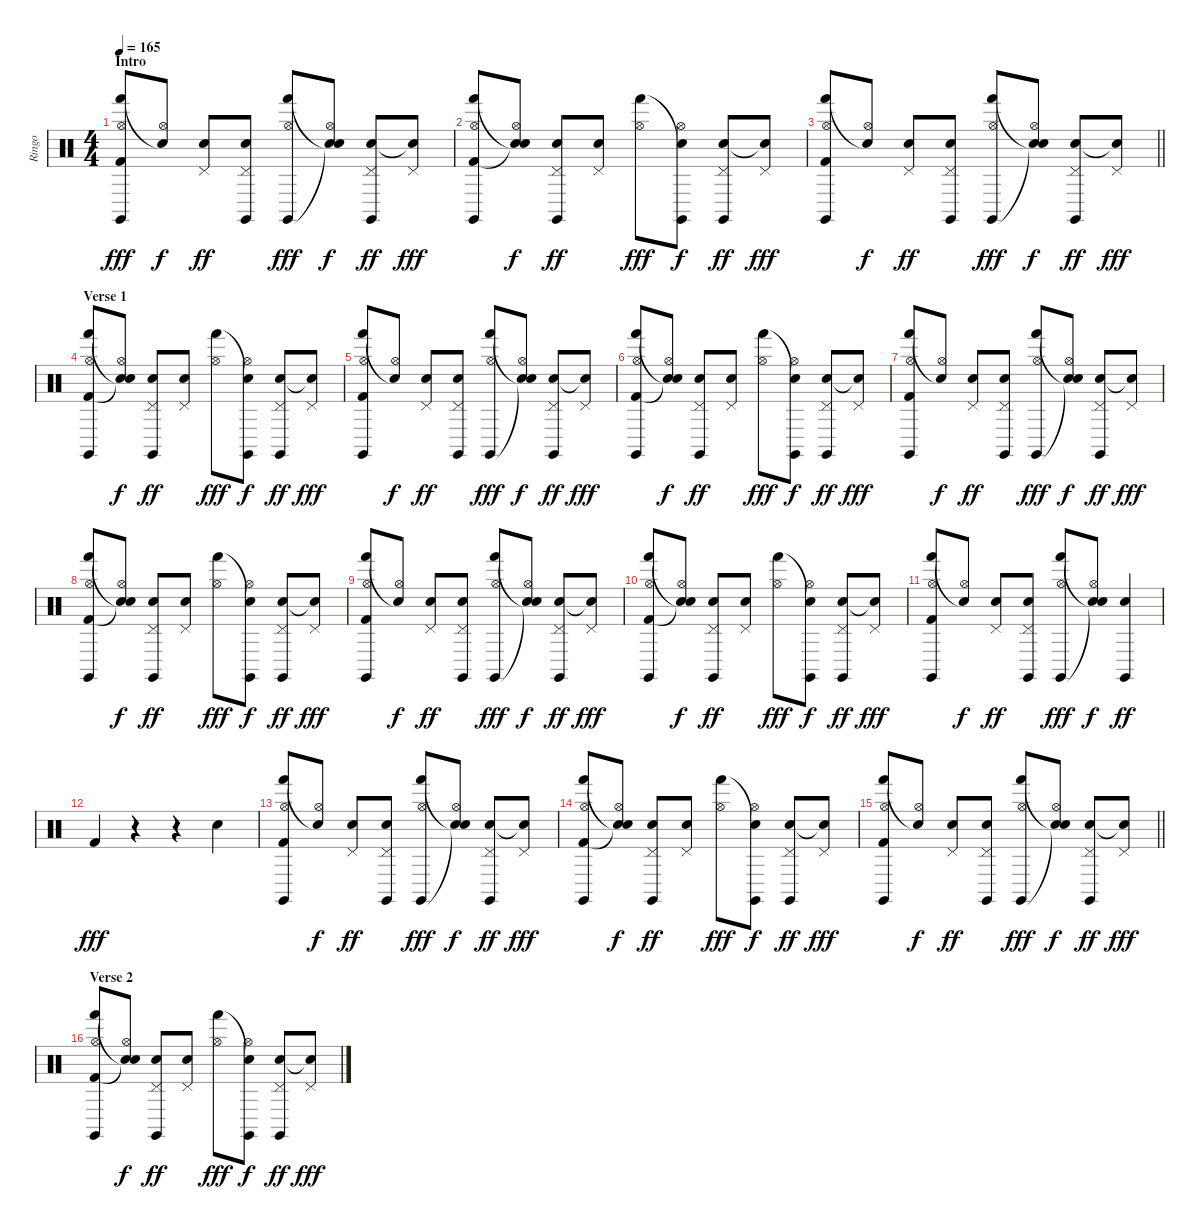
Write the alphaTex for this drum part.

\track ("Ringo" "Ringo") {instrument percussion}
\staff {score}
\articulation defaults
\ts (4 4)
\section ("" "Intro ")
\tempo 165
\clef neutral
\ks c
("Hand (hit)" "Hi-Hat (open)" "Kick (hit) 2" "Claves (hit)").8{dy fff} ("Snare (hit)"{t} "Hi-Hat (open)").8{dy f} ("Pedal Hi-Hat (hit)" "Snare (hit) 2").8{dy ff} ("Pedal Hi-Hat (hit)" "Snare (hit) 2" "Claves (hit)").8 ("Hand (hit)" "Hi-Hat (open)" "Claves (hit)").8{dy fff} ("Snare (hit)"{t} "Hi-Hat (open)" "Snare (hit)"{t}).8{dy f} ("Pedal Hi-Hat (hit)" "Snare (hit) 2" "Claves (hit)").8{dy ff} ("Pedal Hi-Hat (hit)" "Snare (hit)"{t}).8{dy fff} |
("Hand (hit)" "Hi-Hat (open)" "Kick (hit) 2" "Claves (hit)").8 ("Snare (hit)"{t} "Hi-Hat (open)" "Snare (hit)"{t}).8{dy f} ("Pedal Hi-Hat (hit)" "Snare (hit) 2" "Claves (hit)").8{dy ff} ("Pedal Hi-Hat (hit)" "Snare (hit) 2").8 ("Hand (hit)" "Hi-Hat (open)").8{dy fff} ("Snare (hit)"{t} "Hi-Hat (open)" "Claves (hit)").8{dy f} ("Pedal Hi-Hat (hit)" "Snare (hit) 2" "Claves (hit)").8{dy ff} ("Pedal Hi-Hat (hit)" "Snare (hit)"{t}).8{dy fff} |
\barLineRight lightlight
("Hand (hit)" "Hi-Hat (open)" "Kick (hit) 2" "Claves (hit)").8 ("Snare (hit)"{t} "Hi-Hat (open)").8{dy f} ("Pedal Hi-Hat (hit)" "Snare (hit) 2").8{dy ff} ("Pedal Hi-Hat (hit)" "Snare (hit) 2" "Claves (hit)").8 ("Hand (hit)" "Hi-Hat (open)" "Claves (hit)").8{dy fff} ("Snare (hit)"{t} "Hi-Hat (open)" "Snare (hit)"{t}).8{dy f} ("Pedal Hi-Hat (hit)" "Snare (hit) 2" "Claves (hit)").8{dy ff} ("Pedal Hi-Hat (hit)" "Snare (hit)"{t}).8{dy fff} |
\section ("" "Verse 1")
("Hand (hit)" "Hi-Hat (open)" "Kick (hit) 2" "Claves (hit)").8 ("Snare (hit)"{t} "Hi-Hat (open)" "Snare (hit)"{t}).8{dy f} ("Pedal Hi-Hat (hit)" "Snare (hit) 2" "Claves (hit)").8{dy ff} ("Pedal Hi-Hat (hit)" "Snare (hit) 2").8 ("Hand (hit)" "Hi-Hat (open)").8{dy fff} ("Snare (hit)"{t} "Hi-Hat (open)" "Claves (hit)").8{dy f} ("Pedal Hi-Hat (hit)" "Snare (hit) 2" "Claves (hit)").8{dy ff} ("Pedal Hi-Hat (hit)" "Snare (hit)"{t}).8{dy fff} |
("Hand (hit)" "Hi-Hat (open)" "Kick (hit) 2" "Claves (hit)").8 ("Snare (hit)"{t} "Hi-Hat (open)").8{dy f} ("Pedal Hi-Hat (hit)" "Snare (hit) 2").8{dy ff} ("Pedal Hi-Hat (hit)" "Snare (hit) 2" "Claves (hit)").8 ("Hand (hit)" "Hi-Hat (open)" "Claves (hit)").8{dy fff} ("Snare (hit)"{t} "Hi-Hat (open)" "Snare (hit)"{t}).8{dy f} ("Pedal Hi-Hat (hit)" "Snare (hit) 2" "Claves (hit)").8{dy ff} ("Pedal Hi-Hat (hit)" "Snare (hit)"{t}).8{dy fff} |
("Hand (hit)" "Hi-Hat (open)" "Kick (hit) 2" "Claves (hit)").8 ("Snare (hit)"{t} "Hi-Hat (open)" "Snare (hit)"{t}).8{dy f} ("Pedal Hi-Hat (hit)" "Snare (hit) 2" "Claves (hit)").8{dy ff} ("Pedal Hi-Hat (hit)" "Snare (hit) 2").8 ("Hand (hit)" "Hi-Hat (open)").8{dy fff} ("Snare (hit)"{t} "Hi-Hat (open)" "Claves (hit)").8{dy f} ("Pedal Hi-Hat (hit)" "Snare (hit) 2" "Claves (hit)").8{dy ff} ("Pedal Hi-Hat (hit)" "Snare (hit)"{t}).8{dy fff} |
("Hand (hit)" "Hi-Hat (open)" "Kick (hit) 2" "Claves (hit)").8 ("Snare (hit)"{t} "Hi-Hat (open)").8{dy f} ("Pedal Hi-Hat (hit)" "Snare (hit) 2").8{dy ff} ("Pedal Hi-Hat (hit)" "Snare (hit) 2" "Claves (hit)").8 ("Hand (hit)" "Hi-Hat (open)" "Claves (hit)").8{dy fff} ("Snare (hit)"{t} "Hi-Hat (open)" "Snare (hit)"{t}).8{dy f} ("Pedal Hi-Hat (hit)" "Snare (hit) 2" "Claves (hit)").8{dy ff} ("Pedal Hi-Hat (hit)" "Snare (hit)"{t}).8{dy fff} |
("Hand (hit)" "Hi-Hat (open)" "Kick (hit) 2" "Claves (hit)").8 ("Snare (hit)"{t} "Hi-Hat (open)" "Snare (hit)"{t}).8{dy f} ("Pedal Hi-Hat (hit)" "Snare (hit) 2" "Claves (hit)").8{dy ff} ("Pedal Hi-Hat (hit)" "Snare (hit) 2").8 ("Hand (hit)" "Hi-Hat (open)").8{dy fff} ("Snare (hit)"{t} "Hi-Hat (open)" "Claves (hit)").8{dy f} ("Pedal Hi-Hat (hit)" "Snare (hit) 2" "Claves (hit)").8{dy ff} ("Pedal Hi-Hat (hit)" "Snare (hit)"{t}).8{dy fff} |
("Hand (hit)" "Hi-Hat (open)" "Kick (hit) 2" "Claves (hit)").8 ("Snare (hit)"{t} "Hi-Hat (open)").8{dy f} ("Pedal Hi-Hat (hit)" "Snare (hit) 2").8{dy ff} ("Pedal Hi-Hat (hit)" "Snare (hit) 2" "Claves (hit)").8 ("Hand (hit)" "Hi-Hat (open)" "Claves (hit)").8{dy fff} ("Snare (hit)"{t} "Hi-Hat (open)" "Snare (hit)"{t}).8{dy f} ("Pedal Hi-Hat (hit)" "Snare (hit) 2" "Claves (hit)").8{dy ff} ("Pedal Hi-Hat (hit)" "Snare (hit)"{t}).8{dy fff} |
("Hand (hit)" "Hi-Hat (open)" "Kick (hit) 2" "Claves (hit)").8 ("Snare (hit)"{t} "Hi-Hat (open)" "Snare (hit)"{t}).8{dy f} ("Pedal Hi-Hat (hit)" "Snare (hit) 2" "Claves (hit)").8{dy ff} ("Pedal Hi-Hat (hit)" "Snare (hit) 2").8 ("Hand (hit)" "Hi-Hat (open)").8{dy fff} ("Snare (hit)"{t} "Hi-Hat (open)" "Claves (hit)").8{dy f} ("Pedal Hi-Hat (hit)" "Snare (hit) 2" "Claves (hit)").8{dy ff} ("Pedal Hi-Hat (hit)" "Snare (hit)"{t}).8{dy fff} |
("Hand (hit)" "Hi-Hat (open)" "Kick (hit) 2" "Claves (hit)").8 ("Snare (hit)"{t} "Hi-Hat (open)").8{dy f} ("Pedal Hi-Hat (hit)" "Snare (hit) 2").8{dy ff} ("Pedal Hi-Hat (hit)" "Snare (hit) 2" "Claves (hit)").8 ("Hand (hit)" "Hi-Hat (open)" "Claves (hit)").8{dy fff} ("Snare (hit)"{t} "Hi-Hat (open)" "Snare (hit)"{t}).8{dy f} ("Snare (hit) 2" "Claves (hit)").4{dy ff} |
"Kick (hit) 2".4{dy fff} r.4 r.4 "Snare (hit) 2".4 |
("Hand (hit)" "Hi-Hat (open)" "Kick (hit) 2" "Claves (hit)").8 ("Snare (hit)"{t} "Hi-Hat (open)").8{dy f} ("Pedal Hi-Hat (hit)" "Snare (hit) 2").8{dy ff} ("Pedal Hi-Hat (hit)" "Snare (hit) 2" "Claves (hit)").8 ("Hand (hit)" "Hi-Hat (open)" "Claves (hit)").8{dy fff} ("Snare (hit)"{t} "Hi-Hat (open)" "Snare (hit)"{t}).8{dy f} ("Pedal Hi-Hat (hit)" "Snare (hit) 2" "Claves (hit)").8{dy ff} ("Pedal Hi-Hat (hit)" "Snare (hit)"{t}).8{dy fff} |
("Hand (hit)" "Hi-Hat (open)" "Kick (hit) 2" "Claves (hit)").8 ("Snare (hit)"{t} "Hi-Hat (open)" "Snare (hit)"{t}).8{dy f} ("Pedal Hi-Hat (hit)" "Snare (hit) 2" "Claves (hit)").8{dy ff} ("Pedal Hi-Hat (hit)" "Snare (hit) 2").8 ("Hand (hit)" "Hi-Hat (open)").8{dy fff} ("Snare (hit)"{t} "Hi-Hat (open)" "Claves (hit)").8{dy f} ("Pedal Hi-Hat (hit)" "Snare (hit) 2" "Claves (hit)").8{dy ff} ("Pedal Hi-Hat (hit)" "Snare (hit)"{t}).8{dy fff} |
\barLineRight lightlight
("Hand (hit)" "Hi-Hat (open)" "Kick (hit) 2" "Claves (hit)").8 ("Snare (hit)"{t} "Hi-Hat (open)").8{dy f} ("Pedal Hi-Hat (hit)" "Snare (hit) 2").8{dy ff} ("Pedal Hi-Hat (hit)" "Snare (hit) 2" "Claves (hit)").8 ("Hand (hit)" "Hi-Hat (open)" "Claves (hit)").8{dy fff} ("Snare (hit)"{t} "Hi-Hat (open)" "Snare (hit)"{t}).8{dy f} ("Pedal Hi-Hat (hit)" "Snare (hit) 2" "Claves (hit)").8{dy ff} ("Pedal Hi-Hat (hit)" "Snare (hit)"{t}).8{dy fff} |
\section ("" "Verse 2")
("Hand (hit)" "Hi-Hat (open)" "Kick (hit) 2" "Claves (hit)").8 ("Snare (hit)"{t} "Hi-Hat (open)" "Snare (hit)"{t}).8{dy f} ("Pedal Hi-Hat (hit)" "Snare (hit) 2" "Claves (hit)").8{dy ff} ("Pedal Hi-Hat (hit)" "Snare (hit) 2").8 ("Hand (hit)" "Hi-Hat (open)").8{dy fff} ("Snare (hit)"{t} "Hi-Hat (open)" "Claves (hit)").8{dy f} ("Pedal Hi-Hat (hit)" "Snare (hit) 2" "Claves (hit)").8{dy ff} ("Pedal Hi-Hat (hit)" "Snare (hit)"{t}).8{dy fff}
